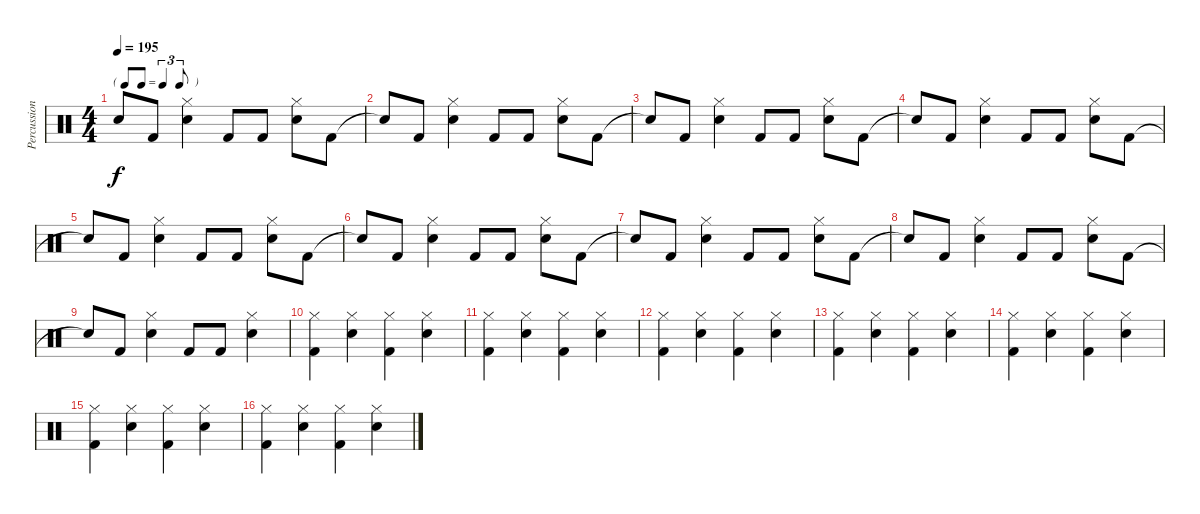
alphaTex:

\track ("Percussions" "Percussion") {instrument percussion}
\staff {score}
\articulation defaults
\ts (4 4)
\tf triplet8th
\tempo 195
\clef neutral
\ks c "Snare (hit)"{t}.8{dy f} "Kick (hit) 2".8
("Snare (hit) 2" "Hi-Hat (closed)").4 "Kick (hit) 2".8 "Kick (hit) 2".8 ("Snare (hit) 2" "Hi-Hat (closed)").8 "Kick (hit) 2".8 |
"Snare (hit)"{t}.8 "Kick (hit) 2".8 ("Snare (hit) 2" "Hi-Hat (closed)").4 "Kick (hit) 2".8 "Kick (hit) 2".8 ("Snare (hit) 2" "Hi-Hat (closed)").8 "Kick (hit) 2".8 |
"Snare (hit)"{t}.8 "Kick (hit) 2".8 ("Snare (hit) 2" "Hi-Hat (closed)").4 "Kick (hit) 2".8 "Kick (hit) 2".8 ("Snare (hit) 2" "Hi-Hat (closed)").8 "Kick (hit) 2".8 |
"Snare (hit)"{t}.8 "Kick (hit) 2".8 ("Snare (hit) 2" "Hi-Hat (closed)").4 "Kick (hit) 2".8 "Kick (hit) 2".8 ("Snare (hit) 2" "Hi-Hat (closed)").8 "Kick (hit) 2".8 |
"Snare (hit)"{t}.8 "Kick (hit) 2".8 ("Snare (hit) 2" "Hi-Hat (closed)").4 "Kick (hit) 2".8 "Kick (hit) 2".8 ("Snare (hit) 2" "Hi-Hat (closed)").8 "Kick (hit) 2".8 |
"Snare (hit)"{t}.8 "Kick (hit) 2".8 ("Snare (hit) 2" "Hi-Hat (closed)").4 "Kick (hit) 2".8 "Kick (hit) 2".8 ("Snare (hit) 2" "Hi-Hat (closed)").8 "Kick (hit) 2".8 |
"Snare (hit)"{t}.8 "Kick (hit) 2".8 ("Snare (hit) 2" "Hi-Hat (closed)").4 "Kick (hit) 2".8 "Kick (hit) 2".8 ("Snare (hit) 2" "Hi-Hat (closed)").8 "Kick (hit) 2".8 |
"Snare (hit)"{t}.8 "Kick (hit) 2".8 ("Snare (hit) 2" "Hi-Hat (closed)").4 "Kick (hit) 2".8 "Kick (hit) 2".8 ("Snare (hit) 2" "Hi-Hat (closed)").8 "Kick (hit) 2".8 |
"Snare (hit)"{t}.8 "Kick (hit) 2".8 ("Snare (hit) 2" "Hi-Hat (closed)").4 "Kick (hit) 2".8 "Kick (hit) 2".8 ("Snare (hit) 2" "Hi-Hat (closed)").4 |
("Hi-Hat (closed)" "Kick (hit) 2").4 ("Snare (hit) 2" "Hi-Hat (closed)").4 ("Hi-Hat (closed)" "Kick (hit) 2").4 ("Snare (hit) 2" "Hi-Hat (closed)").4 |
("Hi-Hat (closed)" "Kick (hit) 2").4 ("Snare (hit) 2" "Hi-Hat (closed)").4 ("Hi-Hat (closed)" "Kick (hit) 2").4 ("Snare (hit) 2" "Hi-Hat (closed)").4 |
("Hi-Hat (closed)" "Kick (hit) 2").4 ("Snare (hit) 2" "Hi-Hat (closed)").4 ("Hi-Hat (closed)" "Kick (hit) 2").4 ("Snare (hit) 2" "Hi-Hat (closed)").4 |
("Hi-Hat (closed)" "Kick (hit) 2").4 ("Snare (hit) 2" "Hi-Hat (closed)").4 ("Hi-Hat (closed)" "Kick (hit) 2").4 ("Snare (hit) 2" "Hi-Hat (closed)").4 |
("Hi-Hat (closed)" "Kick (hit) 2").4 ("Snare (hit) 2" "Hi-Hat (closed)").4 ("Hi-Hat (closed)" "Kick (hit) 2").4 ("Snare (hit) 2" "Hi-Hat (closed)").4 |
("Hi-Hat (closed)" "Kick (hit) 2").4 ("Snare (hit) 2" "Hi-Hat (closed)").4 ("Hi-Hat (closed)" "Kick (hit) 2").4 ("Snare (hit) 2" "Hi-Hat (closed)").4 |
("Hi-Hat (closed)" "Kick (hit) 2").4 ("Snare (hit) 2" "Hi-Hat (closed)").4 ("Hi-Hat (closed)" "Kick (hit) 2").4 ("Snare (hit) 2" "Hi-Hat (closed)").4
